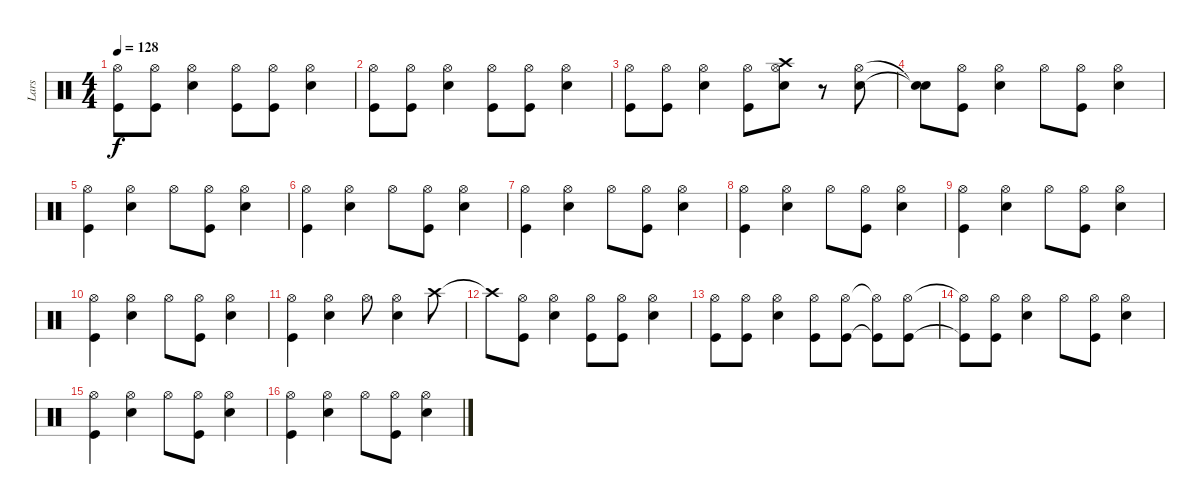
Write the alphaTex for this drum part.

\track ("Lars" "Lars") {instrument percussion}
\staff {score}
\articulation defaults
\ts (4 4)
\tempo 128
\clef neutral
\ks c
("Hi-Hat (open)" "Kick (hit)").8{dy f} ("Hi-Hat (open)" "Kick (hit)").8 ("Hi-Hat (open)" "Snare (hit) 2").4 ("Hi-Hat (open)" "Kick (hit)").8 ("Hi-Hat (open)" "Kick (hit)").8 ("Hi-Hat (open)" "Snare (hit) 2").4 |
("Hi-Hat (open)" "Kick (hit)").8 ("Hi-Hat (open)" "Kick (hit)").8 ("Hi-Hat (open)" "Snare (hit) 2").4 ("Hi-Hat (open)" "Kick (hit)").8 ("Hi-Hat (open)" "Kick (hit)").8 ("Hi-Hat (open)" "Snare (hit) 2").4 |
("Hi-Hat (open)" "Kick (hit)").8 ("Hi-Hat (open)" "Kick (hit)").8 ("Hi-Hat (open)" "Snare (hit) 2").4 ("Hi-Hat (open)" "Kick (hit)").8 ("Crash high (hit)" "Hi-Hat (open)" "Snare (hit) 2").8 r.8 ("Hi-Hat (open)" "Snare (hit) 2").8 |
("Snare (hit)"{t} "Snare (hit)"{t}).8 ("Hi-Hat (open)" "Kick (hit)").8 ("Hi-Hat (open)" "Snare (hit) 2").4 "Hi-Hat (open)".8 ("Hi-Hat (open)" "Kick (hit)").8 ("Hi-Hat (open)" "Snare (hit) 2").4 |
("Hi-Hat (open)" "Kick (hit)").4 ("Hi-Hat (open)" "Snare (hit) 2").4 "Hi-Hat (open)".8 ("Hi-Hat (open)" "Kick (hit)").8 ("Hi-Hat (open)" "Snare (hit) 2").4 |
("Hi-Hat (open)" "Kick (hit)").4 ("Hi-Hat (open)" "Snare (hit) 2").4 "Hi-Hat (open)".8 ("Hi-Hat (open)" "Kick (hit)").8 ("Hi-Hat (open)" "Snare (hit) 2").4 |
("Hi-Hat (open)" "Kick (hit)").4 ("Hi-Hat (open)" "Snare (hit) 2").4 "Hi-Hat (open)".8 ("Hi-Hat (open)" "Kick (hit)").8 ("Hi-Hat (open)" "Snare (hit) 2").4 |
("Hi-Hat (open)" "Kick (hit)").4 ("Hi-Hat (open)" "Snare (hit) 2").4 "Hi-Hat (open)".8 ("Hi-Hat (open)" "Kick (hit)").8 ("Hi-Hat (open)" "Snare (hit) 2").4 |
("Hi-Hat (open)" "Kick (hit)").4 ("Hi-Hat (open)" "Snare (hit) 2").4 "Hi-Hat (open)".8 ("Hi-Hat (open)" "Kick (hit)").8 ("Hi-Hat (open)" "Snare (hit) 2").4 |
("Hi-Hat (open)" "Kick (hit)").4 ("Hi-Hat (open)" "Snare (hit) 2").4 "Hi-Hat (open)".8 ("Hi-Hat (open)" "Kick (hit)").8 ("Hi-Hat (open)" "Snare (hit) 2").4 |
("Hi-Hat (open)" "Kick (hit)").4 ("Hi-Hat (open)" "Snare (hit) 2").4 "Hi-Hat (open)".8 ("Hi-Hat (open)" "Snare (hit) 2").4 "Crash high (hit)".8 |
"Crash high (hit)"{t}.8 ("Hi-Hat (open)" "Kick (hit)").8 ("Hi-Hat (open)" "Snare (hit) 2").4 ("Hi-Hat (open)" "Kick (hit)").8 ("Hi-Hat (open)" "Kick (hit)").8 ("Hi-Hat (open)" "Snare (hit) 2").4 |
("Hi-Hat (open)" "Kick (hit)").8 ("Hi-Hat (open)" "Kick (hit)").8 ("Hi-Hat (open)" "Snare (hit) 2").4 ("Hi-Hat (open)" "Kick (hit)").8 ("Hi-Hat (open)" "Kick (hit)").8 ("Hi-Hat (open)"{t} "Kick (hit)"{t}).8 ("Hi-Hat (open)" "Kick (hit)").8 |
("Hi-Hat (open)"{t} "Kick (hit)"{t}).8 ("Hi-Hat (open)" "Kick (hit)").8 ("Hi-Hat (open)" "Snare (hit) 2").4 "Hi-Hat (open)".8 ("Hi-Hat (open)" "Kick (hit)").8 ("Hi-Hat (open)" "Snare (hit) 2").4 |
("Hi-Hat (open)" "Kick (hit)").4 ("Hi-Hat (open)" "Snare (hit) 2").4 "Hi-Hat (open)".8 ("Hi-Hat (open)" "Kick (hit)").8 ("Hi-Hat (open)" "Snare (hit) 2").4 |
("Hi-Hat (open)" "Kick (hit)").4 ("Hi-Hat (open)" "Snare (hit) 2").4 "Hi-Hat (open)".8 ("Hi-Hat (open)" "Kick (hit)").8 ("Hi-Hat (open)" "Snare (hit) 2").4
